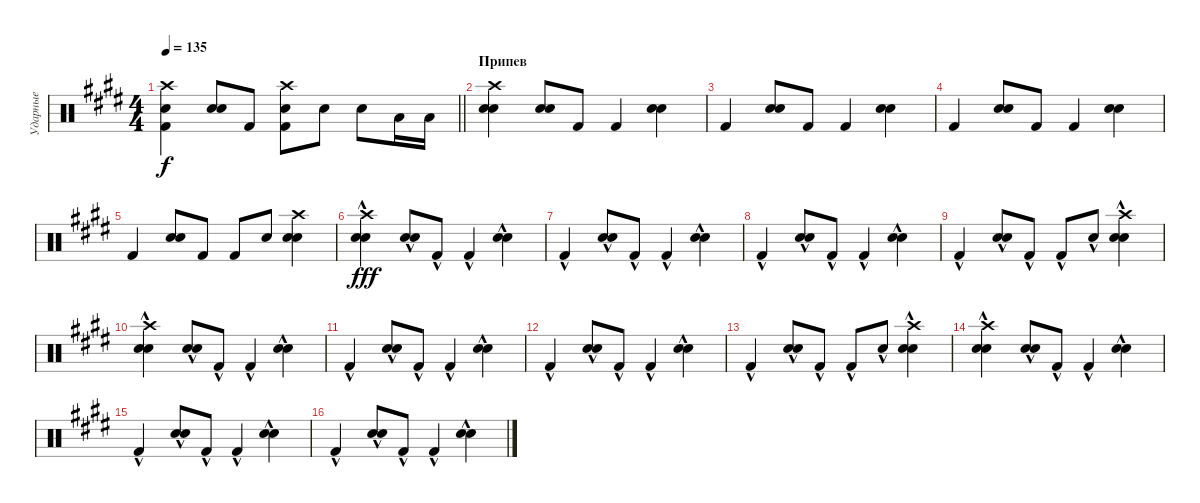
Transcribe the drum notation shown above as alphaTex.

\track ("Ударные" "Ударные") {instrument percussion}
\staff {score}
\articulation defaults
\ts (4 4)
\tempo 135
\clef neutral
\barLineRight lightlight
\ks c#minor
("Crash high (hit)" "Electric Snare (hit)" "Kick (hit) 2").4{dy f} ("Snare (hit) 2" "Electric Snare (hit)").8 "Kick (hit) 2".8 ("Electric Snare (hit)" "Crash high (hit)" "Kick (hit) 2").8 "Electric Snare (hit)".8 "Electric Snare (hit)".8 "Low Floor Tom (hit)".16 "Low Floor Tom (hit)".16 |
\section ("" "Припев")
("Crash high (hit)" "Snare (hit) 2" "Electric Snare (hit)").4 ("Snare (hit) 2" "Electric Snare (hit)").8 "Kick (hit) 2".8 "Kick (hit) 2".4 ("Snare (hit) 2" "Electric Snare (hit)").4 |
"Kick (hit) 2".4 ("Snare (hit) 2" "Electric Snare (hit)").8 "Kick (hit) 2".8 "Kick (hit) 2".4 ("Snare (hit) 2" "Electric Snare (hit)").4 |
"Kick (hit) 2".4 ("Snare (hit) 2" "Electric Snare (hit)").8 "Kick (hit) 2".8 "Kick (hit) 2".4 ("Snare (hit) 2" "Electric Snare (hit)").4 |
"Kick (hit) 2".4 ("Snare (hit) 2" "Electric Snare (hit)").8 "Kick (hit) 2".8 "Kick (hit) 2".8 "Electric Snare (hit)".8 ("Crash high (hit)" "Snare (hit) 2" "Electric Snare (hit)").4 |
("Crash high (hit)"{hac} "Snare (hit) 2"{hac} "Electric Snare (hit)"{hac}).4{dy fff} ("Snare (hit) 2"{hac} "Electric Snare (hit)"{hac}).8 "Kick (hit) 2"{hac}.8 "Kick (hit) 2"{hac}.4 ("Snare (hit) 2"{hac} "Electric Snare (hit)"{hac}).4 |
"Kick (hit) 2"{hac}.4 ("Snare (hit) 2"{hac} "Electric Snare (hit)"{hac}).8 "Kick (hit) 2"{hac}.8 "Kick (hit) 2"{hac}.4 ("Snare (hit) 2"{hac} "Electric Snare (hit)"{hac}).4 |
"Kick (hit) 2"{hac}.4 ("Snare (hit) 2"{hac} "Electric Snare (hit)"{hac}).8 "Kick (hit) 2"{hac}.8 "Kick (hit) 2"{hac}.4 ("Snare (hit) 2"{hac} "Electric Snare (hit)"{hac}).4 |
"Kick (hit) 2"{hac}.4 ("Snare (hit) 2"{hac} "Electric Snare (hit)"{hac}).8 "Kick (hit) 2"{hac}.8 "Kick (hit) 2"{hac}.8 "Electric Snare (hit)"{hac}.8 ("Crash high (hit)"{hac} "Snare (hit) 2"{hac} "Electric Snare (hit)"{hac}).4 |
("Crash high (hit)"{hac} "Snare (hit) 2"{hac} "Electric Snare (hit)"{hac}).4 ("Snare (hit) 2"{hac} "Electric Snare (hit)"{hac}).8 "Kick (hit) 2"{hac}.8 "Kick (hit) 2"{hac}.4 ("Snare (hit) 2"{hac} "Electric Snare (hit)"{hac}).4 |
"Kick (hit) 2"{hac}.4 ("Snare (hit) 2"{hac} "Electric Snare (hit)"{hac}).8 "Kick (hit) 2"{hac}.8 "Kick (hit) 2"{hac}.4 ("Snare (hit) 2"{hac} "Electric Snare (hit)"{hac}).4 |
"Kick (hit) 2"{hac}.4 ("Snare (hit) 2"{hac} "Electric Snare (hit)"{hac}).8 "Kick (hit) 2"{hac}.8 "Kick (hit) 2"{hac}.4 ("Snare (hit) 2"{hac} "Electric Snare (hit)"{hac}).4 |
"Kick (hit) 2"{hac}.4 ("Snare (hit) 2"{hac} "Electric Snare (hit)"{hac}).8 "Kick (hit) 2"{hac}.8 "Kick (hit) 2"{hac}.8 "Electric Snare (hit)"{hac}.8 ("Crash high (hit)"{hac} "Snare (hit) 2"{hac} "Electric Snare (hit)"{hac}).4 |
("Crash high (hit)"{hac} "Snare (hit) 2"{hac} "Electric Snare (hit)"{hac}).4 ("Snare (hit) 2"{hac} "Electric Snare (hit)"{hac}).8 "Kick (hit) 2"{hac}.8 "Kick (hit) 2"{hac}.4 ("Snare (hit) 2"{hac} "Electric Snare (hit)"{hac}).4 |
"Kick (hit) 2"{hac}.4 ("Snare (hit) 2"{hac} "Electric Snare (hit)"{hac}).8 "Kick (hit) 2"{hac}.8 "Kick (hit) 2"{hac}.4 ("Snare (hit) 2"{hac} "Electric Snare (hit)"{hac}).4 |
"Kick (hit) 2"{hac}.4 ("Snare (hit) 2"{hac} "Electric Snare (hit)"{hac}).8 "Kick (hit) 2"{hac}.8 "Kick (hit) 2"{hac}.4 ("Snare (hit) 2"{hac} "Electric Snare (hit)"{hac}).4
